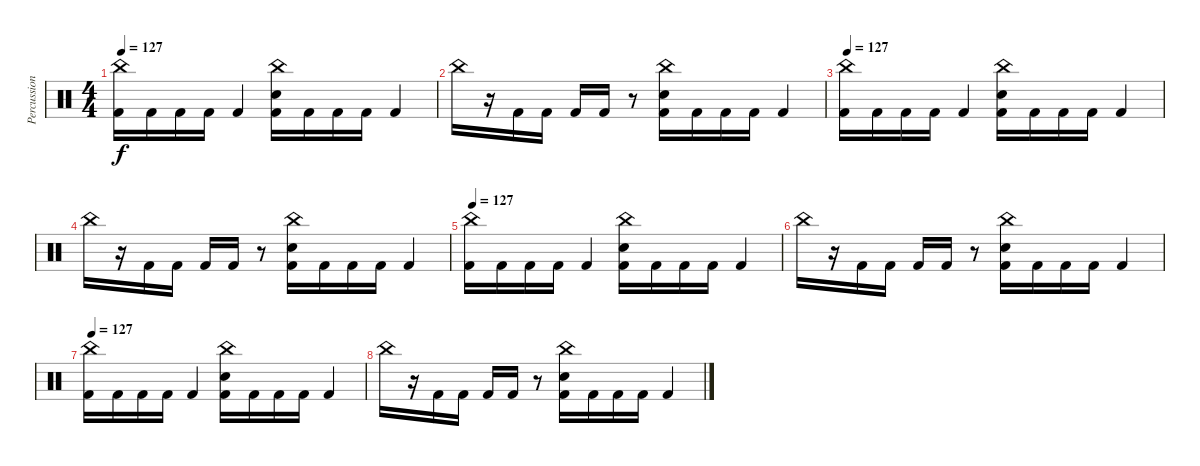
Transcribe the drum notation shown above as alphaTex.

\track ("Percussion" "Percussion") {instrument percussion}
\staff {score}
\articulation defaults
\ts (4 4)
\tempo 127
\clef neutral
\ks c
("China (hit)" "Kick (hit) 2").16{dy f} "Kick (hit) 2".16 "Kick (hit) 2".16 "Kick (hit) 2".16 "Kick (hit) 2".4 ("China (hit)" "Electric Snare (hit)" "Kick (hit) 2").16 "Kick (hit) 2".16 "Kick (hit) 2".16 "Kick (hit) 2".16 "Kick (hit) 2".4 |
"China (hit)".16 r.16 "Kick (hit) 2".16 "Kick (hit) 2".16 "Kick (hit) 2".16 "Kick (hit) 2".16 r.8 ("China (hit)" "Electric Snare (hit)" "Kick (hit) 2").16 "Kick (hit) 2".16 "Kick (hit) 2".16 "Kick (hit) 2".16 "Kick (hit) 2".4 |
\tempo 127
("China (hit)" "Kick (hit) 2").16 "Kick (hit) 2".16 "Kick (hit) 2".16 "Kick (hit) 2".16 "Kick (hit) 2".4 ("China (hit)" "Electric Snare (hit)" "Kick (hit) 2").16 "Kick (hit) 2".16 "Kick (hit) 2".16 "Kick (hit) 2".16 "Kick (hit) 2".4 |
"China (hit)".16 r.16 "Kick (hit) 2".16 "Kick (hit) 2".16 "Kick (hit) 2".16 "Kick (hit) 2".16 r.8 ("China (hit)" "Electric Snare (hit)" "Kick (hit) 2").16 "Kick (hit) 2".16 "Kick (hit) 2".16 "Kick (hit) 2".16 "Kick (hit) 2".4 |
\tempo 127
("China (hit)" "Kick (hit) 2").16 "Kick (hit) 2".16 "Kick (hit) 2".16 "Kick (hit) 2".16 "Kick (hit) 2".4 ("China (hit)" "Electric Snare (hit)" "Kick (hit) 2").16 "Kick (hit) 2".16 "Kick (hit) 2".16 "Kick (hit) 2".16 "Kick (hit) 2".4 |
"China (hit)".16 r.16 "Kick (hit) 2".16 "Kick (hit) 2".16 "Kick (hit) 2".16 "Kick (hit) 2".16 r.8 ("China (hit)" "Electric Snare (hit)" "Kick (hit) 2").16 "Kick (hit) 2".16 "Kick (hit) 2".16 "Kick (hit) 2".16 "Kick (hit) 2".4 |
\tempo 127
("China (hit)" "Kick (hit) 2").16 "Kick (hit) 2".16 "Kick (hit) 2".16 "Kick (hit) 2".16 "Kick (hit) 2".4 ("China (hit)" "Electric Snare (hit)" "Kick (hit) 2").16 "Kick (hit) 2".16 "Kick (hit) 2".16 "Kick (hit) 2".16 "Kick (hit) 2".4 |
"China (hit)".16 r.16 "Kick (hit) 2".16 "Kick (hit) 2".16 "Kick (hit) 2".16 "Kick (hit) 2".16 r.8 ("China (hit)" "Electric Snare (hit)" "Kick (hit) 2").16 "Kick (hit) 2".16 "Kick (hit) 2".16 "Kick (hit) 2".16 "Kick (hit) 2".4
